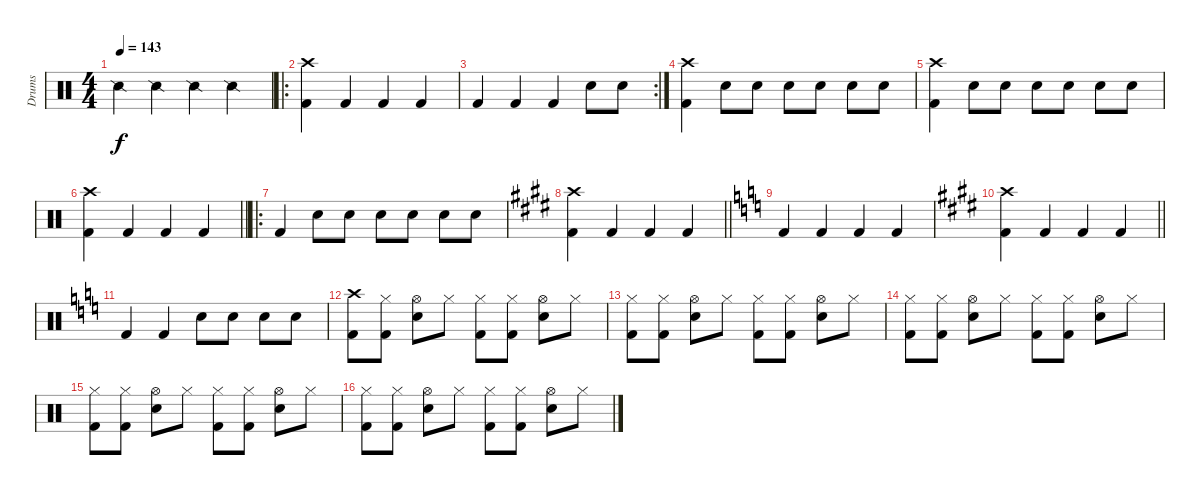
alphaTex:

\track ("Drums" "Drums") {instrument percussion}
\staff {score}
\articulation defaults
\ts (4 4)
\tempo 143
\clef neutral
\ks c "Snare (side stick) 2".4{dy f} "Snare (side stick) 2".4 "Snare (side stick) 2".4 "Snare (side stick) 2".4
|
\ro
("Crash high (hit)" "Kick (hit) 2").4 "Kick (hit) 2".4 "Kick (hit) 2".4 "Kick (hit) 2".4 |
\rc 2 "Kick (hit) 2".4 "Kick (hit) 2".4 "Kick (hit) 2".4 "Snare (hit) 2".8 "Snare (hit) 2".8
|
("Crash high (hit)" "Kick (hit) 2").4 "Electric Snare (hit)".8 "Electric Snare (hit)".8 "Electric Snare (hit)".8 "Electric Snare (hit)".8 "Electric Snare (hit)".8 "Electric Snare (hit)".8 |
("Crash high (hit)" "Kick (hit) 2").4 "Electric Snare (hit)".8 "Electric Snare (hit)".8 "Electric Snare (hit)".8 "Electric Snare (hit)".8 "Electric Snare (hit)".8 "Electric Snare (hit)".8 |
\barLineRight lightlight
("Crash high (hit)" "Kick (hit) 2").4 "Kick (hit) 2".4 "Kick (hit) 2".4 "Kick (hit) 2".4 |
\ro "Kick (hit) 2".4 "Snare (hit) 2".8 "Snare (hit) 2".8 "Snare (hit) 2".8 "Electric Snare (hit)".8 "Electric Snare (hit)".8 "Electric Snare (hit)".8
|
\barLineRight lightlight
\ks c#minor
("Crash high (hit)" "Kick (hit) 2").4 "Kick (hit) 2".4 "Kick (hit) 2".4 "Kick (hit) 2".4 |
\section ("" "")
\ks c "Kick (hit) 2".4 "Kick (hit) 2".4 "Kick (hit) 2".4 "Kick (hit) 2".4
|
\barLineRight lightlight
\ks c#minor
("Crash high (hit)" "Kick (hit) 2").4 "Kick (hit) 2".4 "Kick (hit) 2".4 "Kick (hit) 2".4 |
\ks c "Kick (hit) 2".4 "Kick (hit) 2".4 "Snare (hit) 2".8 "Snare (hit) 2".8 "Electric Snare (hit)".8 "Electric Snare (hit)".8
|
("Crash high (hit)" "Kick (hit) 2").8 ("Hi-Hat (closed)" "Kick (hit) 2").8 ("Hi-Hat (open)" "Electric Snare (hit)").8 "Hi-Hat (closed)".8 ("Hi-Hat (closed)" "Kick (hit) 2").8 ("Hi-Hat (closed)" "Kick (hit) 2").8 ("Hi-Hat (open)" "Electric Snare (hit)").8 "Hi-Hat (closed)".8 |
("Hi-Hat (closed)" "Kick (hit) 2").8 ("Hi-Hat (closed)" "Kick (hit) 2").8 ("Hi-Hat (open)" "Electric Snare (hit)").8 "Hi-Hat (closed)".8 ("Hi-Hat (closed)" "Kick (hit) 2").8 ("Hi-Hat (closed)" "Kick (hit) 2").8 ("Hi-Hat (open)" "Electric Snare (hit)").8 "Hi-Hat (closed)".8 |
("Hi-Hat (closed)" "Kick (hit) 2").8 ("Hi-Hat (closed)" "Kick (hit) 2").8 ("Hi-Hat (open)" "Electric Snare (hit)").8 "Hi-Hat (closed)".8 ("Hi-Hat (closed)" "Kick (hit) 2").8 ("Hi-Hat (closed)" "Kick (hit) 2").8 ("Hi-Hat (open)" "Electric Snare (hit)").8 "Hi-Hat (closed)".8 |
("Hi-Hat (closed)" "Kick (hit) 2").8 ("Hi-Hat (closed)" "Kick (hit) 2").8 ("Hi-Hat (open)" "Electric Snare (hit)").8 "Hi-Hat (closed)".8 ("Hi-Hat (closed)" "Kick (hit) 2").8 ("Hi-Hat (closed)" "Kick (hit) 2").8 ("Hi-Hat (open)" "Electric Snare (hit)").8 "Hi-Hat (closed)".8 |
("Hi-Hat (closed)" "Kick (hit) 2").8 ("Hi-Hat (closed)" "Kick (hit) 2").8 ("Hi-Hat (open)" "Electric Snare (hit)").8 "Hi-Hat (closed)".8 ("Hi-Hat (closed)" "Kick (hit) 2").8 ("Hi-Hat (closed)" "Kick (hit) 2").8 ("Hi-Hat (open)" "Electric Snare (hit)").8 "Hi-Hat (closed)".8
